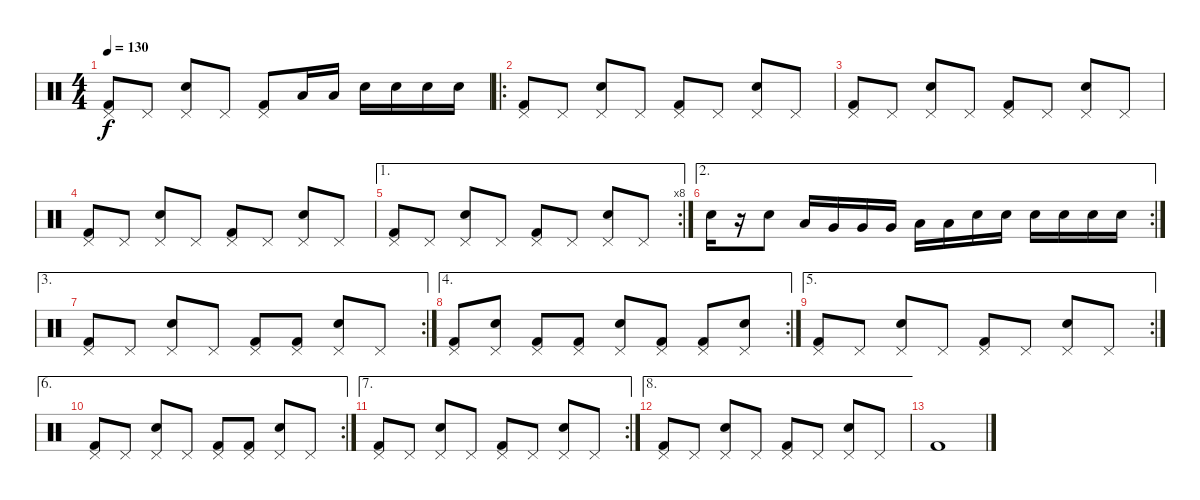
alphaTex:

\track "" {instrument percussion}
\staff {score}
\articulation defaults
\ts (4 4)
\tempo 130
\clef neutral
\ks c
("Kick (hit) 2" "Pedal Hi-Hat (hit)").8{dy f} "Pedal Hi-Hat (hit)".8 ("Electric Snare (hit)" "Pedal Hi-Hat (hit)").8 "Pedal Hi-Hat (hit)".8 ("Kick (hit) 2" "Pedal Hi-Hat (hit)").8 "Low Floor Tom (hit)".16 "Low Floor Tom (hit)".16 "Electric Snare (hit)".16 "Electric Snare (hit)".16 "Electric Snare (hit)".16 "Electric Snare (hit)".16 |
\ro
("Kick (hit) 2" "Pedal Hi-Hat (hit)").8 "Pedal Hi-Hat (hit)".8 ("Electric Snare (hit)" "Pedal Hi-Hat (hit)").8 "Pedal Hi-Hat (hit)".8 ("Kick (hit) 2" "Pedal Hi-Hat (hit)").8 "Pedal Hi-Hat (hit)".8 ("Electric Snare (hit)" "Pedal Hi-Hat (hit)").8 "Pedal Hi-Hat (hit)".8 |
("Kick (hit) 2" "Pedal Hi-Hat (hit)").8 "Pedal Hi-Hat (hit)".8 ("Electric Snare (hit)" "Pedal Hi-Hat (hit)").8 "Pedal Hi-Hat (hit)".8 ("Kick (hit) 2" "Pedal Hi-Hat (hit)").8 "Pedal Hi-Hat (hit)".8 ("Electric Snare (hit)" "Pedal Hi-Hat (hit)").8 "Pedal Hi-Hat (hit)".8 |
("Kick (hit) 2" "Pedal Hi-Hat (hit)").8 "Pedal Hi-Hat (hit)".8 ("Electric Snare (hit)" "Pedal Hi-Hat (hit)").8 "Pedal Hi-Hat (hit)".8 ("Kick (hit) 2" "Pedal Hi-Hat (hit)").8 "Pedal Hi-Hat (hit)".8 ("Electric Snare (hit)" "Pedal Hi-Hat (hit)").8 "Pedal Hi-Hat (hit)".8 |
\ae 1
\rc 8
("Kick (hit) 2" "Pedal Hi-Hat (hit)").8 "Pedal Hi-Hat (hit)".8 ("Electric Snare (hit)" "Pedal Hi-Hat (hit)").8 "Pedal Hi-Hat (hit)".8 ("Kick (hit) 2" "Pedal Hi-Hat (hit)").8 "Pedal Hi-Hat (hit)".8 ("Electric Snare (hit)" "Pedal Hi-Hat (hit)").8 "Pedal Hi-Hat (hit)".8 |
\ae 2
\rc 2 "Electric Snare (hit)".16
r.16 "Electric Snare (hit)".8 "Low Floor Tom (hit)".16 "Very Low Tom (hit)".16 "Very Low Tom (hit)".16 "Very Low Tom (hit)".16 "Low Tom (hit)".16 "Low Tom (hit)".16 "Electric Snare (hit)".16 "Electric Snare (hit)".16 "Electric Snare (hit)".16 "Electric Snare (hit)".16 "Electric Snare (hit)".16 "Electric Snare (hit)".16 |
\ae 3
\rc 2
("Kick (hit) 2" "Pedal Hi-Hat (hit)").8 "Pedal Hi-Hat (hit)".8 ("Electric Snare (hit)" "Pedal Hi-Hat (hit)").8 "Pedal Hi-Hat (hit)".8 ("Kick (hit) 2" "Pedal Hi-Hat (hit)").8 ("Kick (hit) 2" "Pedal Hi-Hat (hit)").8 ("Electric Snare (hit)" "Pedal Hi-Hat (hit)").8 "Pedal Hi-Hat (hit)".8 |
\ae 4
\rc 2
("Kick (hit) 2" "Pedal Hi-Hat (hit)").8 ("Electric Snare (hit)" "Pedal Hi-Hat (hit)").8 ("Kick (hit) 2" "Pedal Hi-Hat (hit)").8 ("Kick (hit) 2" "Pedal Hi-Hat (hit)").8 ("Electric Snare (hit)" "Pedal Hi-Hat (hit)").8 ("Kick (hit) 2" "Pedal Hi-Hat (hit)").8 ("Kick (hit) 2" "Pedal Hi-Hat (hit)").8 ("Electric Snare (hit)" "Pedal Hi-Hat (hit)").8 |
\ae 5
\rc 2
("Kick (hit) 2" "Pedal Hi-Hat (hit)").8 "Pedal Hi-Hat (hit)".8 ("Electric Snare (hit)" "Pedal Hi-Hat (hit)").8 "Pedal Hi-Hat (hit)".8 ("Kick (hit) 2" "Pedal Hi-Hat (hit)").8 "Pedal Hi-Hat (hit)".8 ("Electric Snare (hit)" "Pedal Hi-Hat (hit)").8 "Pedal Hi-Hat (hit)".8 |
\ae 6
\rc 2
("Kick (hit) 2" "Pedal Hi-Hat (hit)").8 "Pedal Hi-Hat (hit)".8 ("Electric Snare (hit)" "Pedal Hi-Hat (hit)").8 "Pedal Hi-Hat (hit)".8 ("Kick (hit) 2" "Pedal Hi-Hat (hit)").8 ("Kick (hit) 2" "Pedal Hi-Hat (hit)").8 ("Electric Snare (hit)" "Pedal Hi-Hat (hit)").8 "Pedal Hi-Hat (hit)".8 |
\ae 7
\rc 2
("Kick (hit) 2" "Pedal Hi-Hat (hit)").8 "Pedal Hi-Hat (hit)".8 ("Electric Snare (hit)" "Pedal Hi-Hat (hit)").8 "Pedal Hi-Hat (hit)".8 ("Kick (hit) 2" "Pedal Hi-Hat (hit)").8 "Pedal Hi-Hat (hit)".8 ("Electric Snare (hit)" "Pedal Hi-Hat (hit)").8 "Pedal Hi-Hat (hit)".8 |
\ae 8
("Kick (hit) 2" "Pedal Hi-Hat (hit)").8 "Pedal Hi-Hat (hit)".8 ("Electric Snare (hit)" "Pedal Hi-Hat (hit)").8 "Pedal Hi-Hat (hit)".8 ("Kick (hit) 2" "Pedal Hi-Hat (hit)").8 "Pedal Hi-Hat (hit)".8 ("Electric Snare (hit)" "Pedal Hi-Hat (hit)").8 "Pedal Hi-Hat (hit)".8 |
"Kick (hit) 2".1
